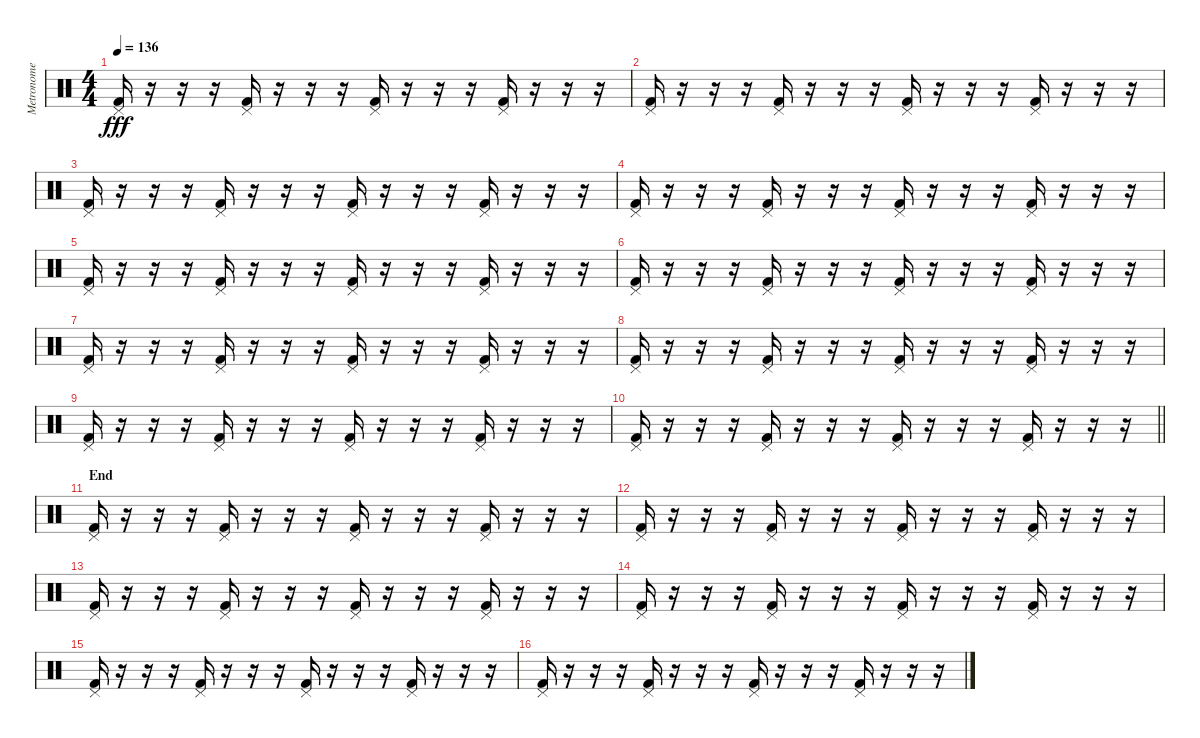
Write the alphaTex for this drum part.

\track ("Metronome" "Metronome") {mute instrument percussion}
\staff {score}
\articulation defaults
\ts (4 4)
\tempo 136
\clef neutral
\ks c
("Pedal Hi-Hat (hit)" "Kick (hit) 2").16{dy fff} r.16 r.16 r.16 ("Pedal Hi-Hat (hit)" "Kick (hit) 2").16 r.16 r.16 r.16 ("Pedal Hi-Hat (hit)" "Kick (hit) 2").16 r.16 r.16 r.16 ("Pedal Hi-Hat (hit)" "Kick (hit) 2").16 r.16 r.16 r.16 |
("Pedal Hi-Hat (hit)" "Kick (hit) 2").16 r.16 r.16 r.16 ("Pedal Hi-Hat (hit)" "Kick (hit) 2").16 r.16 r.16 r.16 ("Pedal Hi-Hat (hit)" "Kick (hit) 2").16 r.16 r.16 r.16 ("Pedal Hi-Hat (hit)" "Kick (hit) 2").16 r.16 r.16 r.16 |
("Pedal Hi-Hat (hit)" "Kick (hit) 2").16 r.16 r.16 r.16 ("Pedal Hi-Hat (hit)" "Kick (hit) 2").16 r.16 r.16 r.16 ("Pedal Hi-Hat (hit)" "Kick (hit) 2").16 r.16 r.16 r.16 ("Pedal Hi-Hat (hit)" "Kick (hit) 2").16 r.16 r.16 r.16 |
("Pedal Hi-Hat (hit)" "Kick (hit) 2").16 r.16 r.16 r.16 ("Pedal Hi-Hat (hit)" "Kick (hit) 2").16 r.16 r.16 r.16 ("Pedal Hi-Hat (hit)" "Kick (hit) 2").16 r.16 r.16 r.16 ("Pedal Hi-Hat (hit)" "Kick (hit) 2").16 r.16 r.16 r.16 |
("Pedal Hi-Hat (hit)" "Kick (hit) 2").16 r.16 r.16 r.16 ("Pedal Hi-Hat (hit)" "Kick (hit) 2").16 r.16 r.16 r.16 ("Pedal Hi-Hat (hit)" "Kick (hit) 2").16 r.16 r.16 r.16 ("Pedal Hi-Hat (hit)" "Kick (hit) 2").16 r.16 r.16 r.16 |
("Pedal Hi-Hat (hit)" "Kick (hit) 2").16 r.16 r.16 r.16 ("Pedal Hi-Hat (hit)" "Kick (hit) 2").16 r.16 r.16 r.16 ("Pedal Hi-Hat (hit)" "Kick (hit) 2").16 r.16 r.16 r.16 ("Pedal Hi-Hat (hit)" "Kick (hit) 2").16 r.16 r.16 r.16 |
("Pedal Hi-Hat (hit)" "Kick (hit) 2").16 r.16 r.16 r.16 ("Pedal Hi-Hat (hit)" "Kick (hit) 2").16 r.16 r.16 r.16 ("Pedal Hi-Hat (hit)" "Kick (hit) 2").16 r.16 r.16 r.16 ("Pedal Hi-Hat (hit)" "Kick (hit) 2").16 r.16 r.16 r.16 |
("Pedal Hi-Hat (hit)" "Kick (hit) 2").16 r.16 r.16 r.16 ("Pedal Hi-Hat (hit)" "Kick (hit) 2").16 r.16 r.16 r.16 ("Pedal Hi-Hat (hit)" "Kick (hit) 2").16 r.16 r.16 r.16 ("Pedal Hi-Hat (hit)" "Kick (hit) 2").16 r.16 r.16 r.16 |
("Pedal Hi-Hat (hit)" "Kick (hit) 2").16 r.16 r.16 r.16 ("Pedal Hi-Hat (hit)" "Kick (hit) 2").16 r.16 r.16 r.16 ("Pedal Hi-Hat (hit)" "Kick (hit) 2").16 r.16 r.16 r.16 ("Pedal Hi-Hat (hit)" "Kick (hit) 2").16 r.16 r.16 r.16 |
\barLineRight lightlight
("Pedal Hi-Hat (hit)" "Kick (hit) 2").16 r.16 r.16 r.16 ("Pedal Hi-Hat (hit)" "Kick (hit) 2").16 r.16 r.16 r.16 ("Pedal Hi-Hat (hit)" "Kick (hit) 2").16 r.16 r.16 r.16 ("Pedal Hi-Hat (hit)" "Kick (hit) 2").16 r.16 r.16 r.16 |
\section ("" "End")
("Pedal Hi-Hat (hit)" "Kick (hit) 2").16 r.16 r.16 r.16 ("Pedal Hi-Hat (hit)" "Kick (hit) 2").16 r.16 r.16 r.16 ("Pedal Hi-Hat (hit)" "Kick (hit) 2").16 r.16 r.16 r.16 ("Pedal Hi-Hat (hit)" "Kick (hit) 2").16 r.16 r.16 r.16 |
("Pedal Hi-Hat (hit)" "Kick (hit) 2").16 r.16 r.16 r.16 ("Pedal Hi-Hat (hit)" "Kick (hit) 2").16 r.16 r.16 r.16 ("Pedal Hi-Hat (hit)" "Kick (hit) 2").16 r.16 r.16 r.16 ("Pedal Hi-Hat (hit)" "Kick (hit) 2").16 r.16 r.16 r.16 |
("Pedal Hi-Hat (hit)" "Kick (hit) 2").16 r.16 r.16 r.16 ("Pedal Hi-Hat (hit)" "Kick (hit) 2").16 r.16 r.16 r.16 ("Pedal Hi-Hat (hit)" "Kick (hit) 2").16 r.16 r.16 r.16 ("Pedal Hi-Hat (hit)" "Kick (hit) 2").16 r.16 r.16 r.16 |
("Pedal Hi-Hat (hit)" "Kick (hit) 2").16 r.16 r.16 r.16 ("Pedal Hi-Hat (hit)" "Kick (hit) 2").16 r.16 r.16 r.16 ("Pedal Hi-Hat (hit)" "Kick (hit) 2").16 r.16 r.16 r.16 ("Pedal Hi-Hat (hit)" "Kick (hit) 2").16 r.16 r.16 r.16 |
("Pedal Hi-Hat (hit)" "Kick (hit) 2").16 r.16 r.16 r.16 ("Pedal Hi-Hat (hit)" "Kick (hit) 2").16 r.16 r.16 r.16 ("Pedal Hi-Hat (hit)" "Kick (hit) 2").16 r.16 r.16 r.16 ("Pedal Hi-Hat (hit)" "Kick (hit) 2").16 r.16 r.16 r.16 |
("Pedal Hi-Hat (hit)" "Kick (hit) 2").16 r.16 r.16 r.16 ("Pedal Hi-Hat (hit)" "Kick (hit) 2").16 r.16 r.16 r.16 ("Pedal Hi-Hat (hit)" "Kick (hit) 2").16 r.16 r.16 r.16 ("Pedal Hi-Hat (hit)" "Kick (hit) 2").16 r.16 r.16 r.16
